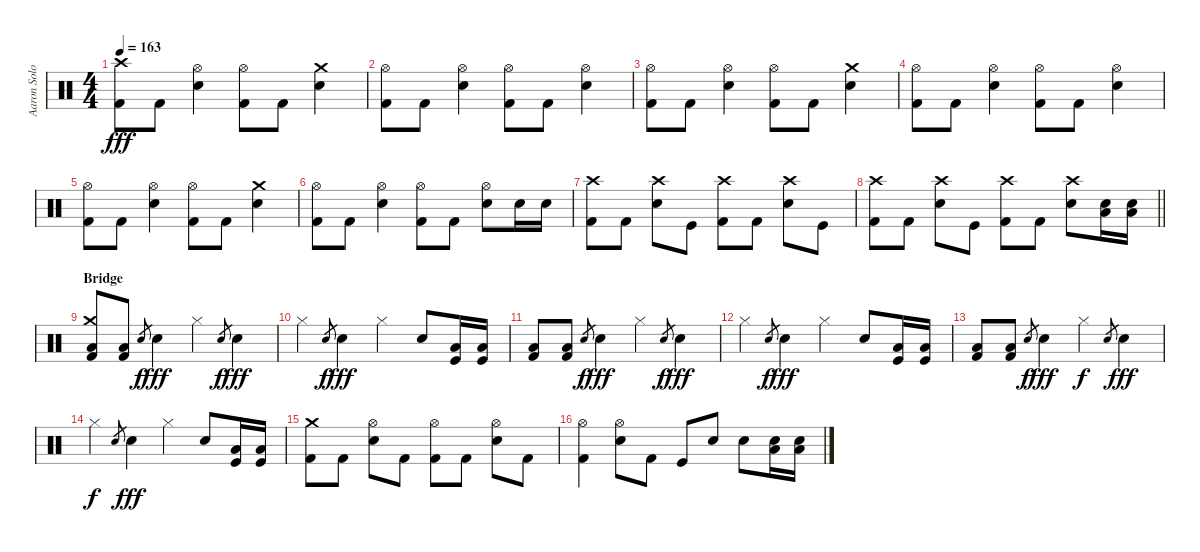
\track ("Aaron Solowoniuk - Schlagzeug" "Aaron Solo") {instrument percussion}
\staff {score}
\articulation defaults
\ts (4 4)
\tempo 163
\clef neutral
\ks c
("Crash high (hit)" "Kick (hit) 2").8{dy fff} "Kick (hit) 2".8 ("Hi-Hat (open)" "Electric Snare (hit)").4 ("Hi-Hat (open)" "Kick (hit) 2").8 "Kick (hit) 2".8 ("Crash medium (hit)" "Electric Snare (hit)").4 |
("Hi-Hat (open)" "Kick (hit) 2").8 "Kick (hit) 2".8 ("Hi-Hat (open)" "Electric Snare (hit)").4 ("Hi-Hat (open)" "Kick (hit) 2").8 "Kick (hit) 2".8 ("Hi-Hat (open)" "Electric Snare (hit)").4 |
("Hi-Hat (open)" "Kick (hit) 2").8 "Kick (hit) 2".8 ("Hi-Hat (open)" "Electric Snare (hit)").4 ("Hi-Hat (open)" "Kick (hit) 2").8 "Kick (hit) 2".8 ("Crash medium (hit)" "Electric Snare (hit)").4 |
("Hi-Hat (open)" "Kick (hit) 2").8 "Kick (hit) 2".8 ("Hi-Hat (open)" "Electric Snare (hit)").4 ("Hi-Hat (open)" "Kick (hit) 2").8 "Kick (hit) 2".8 ("Hi-Hat (open)" "Electric Snare (hit)").4 |
("Hi-Hat (open)" "Kick (hit) 2").8 "Kick (hit) 2".8 ("Hi-Hat (open)" "Electric Snare (hit)").4 ("Hi-Hat (open)" "Kick (hit) 2").8 "Kick (hit) 2".8 ("Crash medium (hit)" "Electric Snare (hit)").4 |
("Hi-Hat (open)" "Kick (hit) 2").8 "Kick (hit) 2".8 ("Hi-Hat (open)" "Electric Snare (hit)").4 ("Hi-Hat (open)" "Kick (hit) 2").8 "Kick (hit) 2".8 ("Hi-Hat (open)" "Electric Snare (hit)").8 "Electric Snare (hit)".16 "Electric Snare (hit)".16 |
("Crash high (hit)" "Kick (hit) 2").8 "Kick (hit) 2".8 ("Crash high (hit)" "Electric Snare (hit)").8 "Kick (hit)".8 ("Crash high (hit)" "Kick (hit) 2").8 "Kick (hit) 2".8 ("Crash high (hit)" "Electric Snare (hit)").8 "Kick (hit)".8 |
\barLineRight lightlight
("Crash high (hit)" "Kick (hit) 2").8 "Kick (hit) 2".8 ("Crash high (hit)" "Electric Snare (hit)").8 "Kick (hit)".8 ("Crash high (hit)" "Kick (hit) 2").8 "Kick (hit) 2".8 ("Crash high (hit)" "Electric Snare (hit)").8 ("Electric Snare (hit)" "Low Floor Tom (hit)").16 ("Electric Snare (hit)" "Low Floor Tom (hit)").16 |
\section ("" "Bridge")
("Crash medium (hit)" "Low Floor Tom (hit)" "Kick (hit) 2").8 ("Low Floor Tom (hit)" "Kick (hit) 2").8 "Electric Snare (hit)".8{gr dy f} "Electric Snare (hit)".4{dy fff} "Hi-Hat (closed)".4 "Electric Snare (hit)".8{gr dy f} "Electric Snare (hit)".4{dy fff} |
"Hi-Hat (closed)".4 "Electric Snare (hit)".8{gr dy f} "Electric Snare (hit)".4{dy fff} "Hi-Hat (closed)".4 "Electric Snare (hit)".8 ("Kick (hit)" "Low Floor Tom (hit)").16 ("Kick (hit)" "Low Floor Tom (hit)").16 |
("Low Floor Tom (hit)" "Kick (hit) 2").8 ("Low Floor Tom (hit)" "Kick (hit) 2").8 "Electric Snare (hit)".8{gr dy f} "Electric Snare (hit)".4{dy fff} "Hi-Hat (closed)".4 "Electric Snare (hit)".8{gr dy f} "Electric Snare (hit)".4{dy fff} |
"Hi-Hat (closed)".4 "Electric Snare (hit)".8{gr dy f} "Electric Snare (hit)".4{dy fff} "Hi-Hat (closed)".4 "Electric Snare (hit)".8 ("Kick (hit)" "Low Floor Tom (hit)").16 ("Kick (hit)" "Low Floor Tom (hit)").16 |
("Low Floor Tom (hit)" "Kick (hit) 2").8 ("Low Floor Tom (hit)" "Kick (hit) 2").8 "Electric Snare (hit)".8{gr dy f} "Electric Snare (hit)".4{dy fff} "Hi-Hat (closed)".4{dy f} "Electric Snare (hit)".8{gr} "Electric Snare (hit)".4{dy fff} |
"Hi-Hat (closed)".4{dy f} "Electric Snare (hit)".8{gr} "Electric Snare (hit)".4{dy fff} "Hi-Hat (closed)".4 "Electric Snare (hit)".8 ("Kick (hit)" "Low Floor Tom (hit)").16 ("Kick (hit)" "Low Floor Tom (hit)").16 |
("Crash medium (hit)" "Kick (hit) 2").8 "Kick (hit) 2".8 ("Hi-Hat (open)" "Electric Snare (hit)").8 "Kick (hit) 2".8 ("Hi-Hat (open)" "Kick (hit) 2").8 "Kick (hit) 2".8 ("Hi-Hat (open)" "Electric Snare (hit)").8 "Kick (hit) 2".8 |
("Hi-Hat (open)" "Kick (hit) 2").4 ("Hi-Hat (open)" "Electric Snare (hit)").8 "Kick (hit) 2".8 "Kick (hit)".8 "Electric Snare (hit)".8 "Electric Snare (hit)".8 ("Electric Snare (hit)" "Low Floor Tom (hit)").16 ("Electric Snare (hit)" "Low Floor Tom (hit)").16
